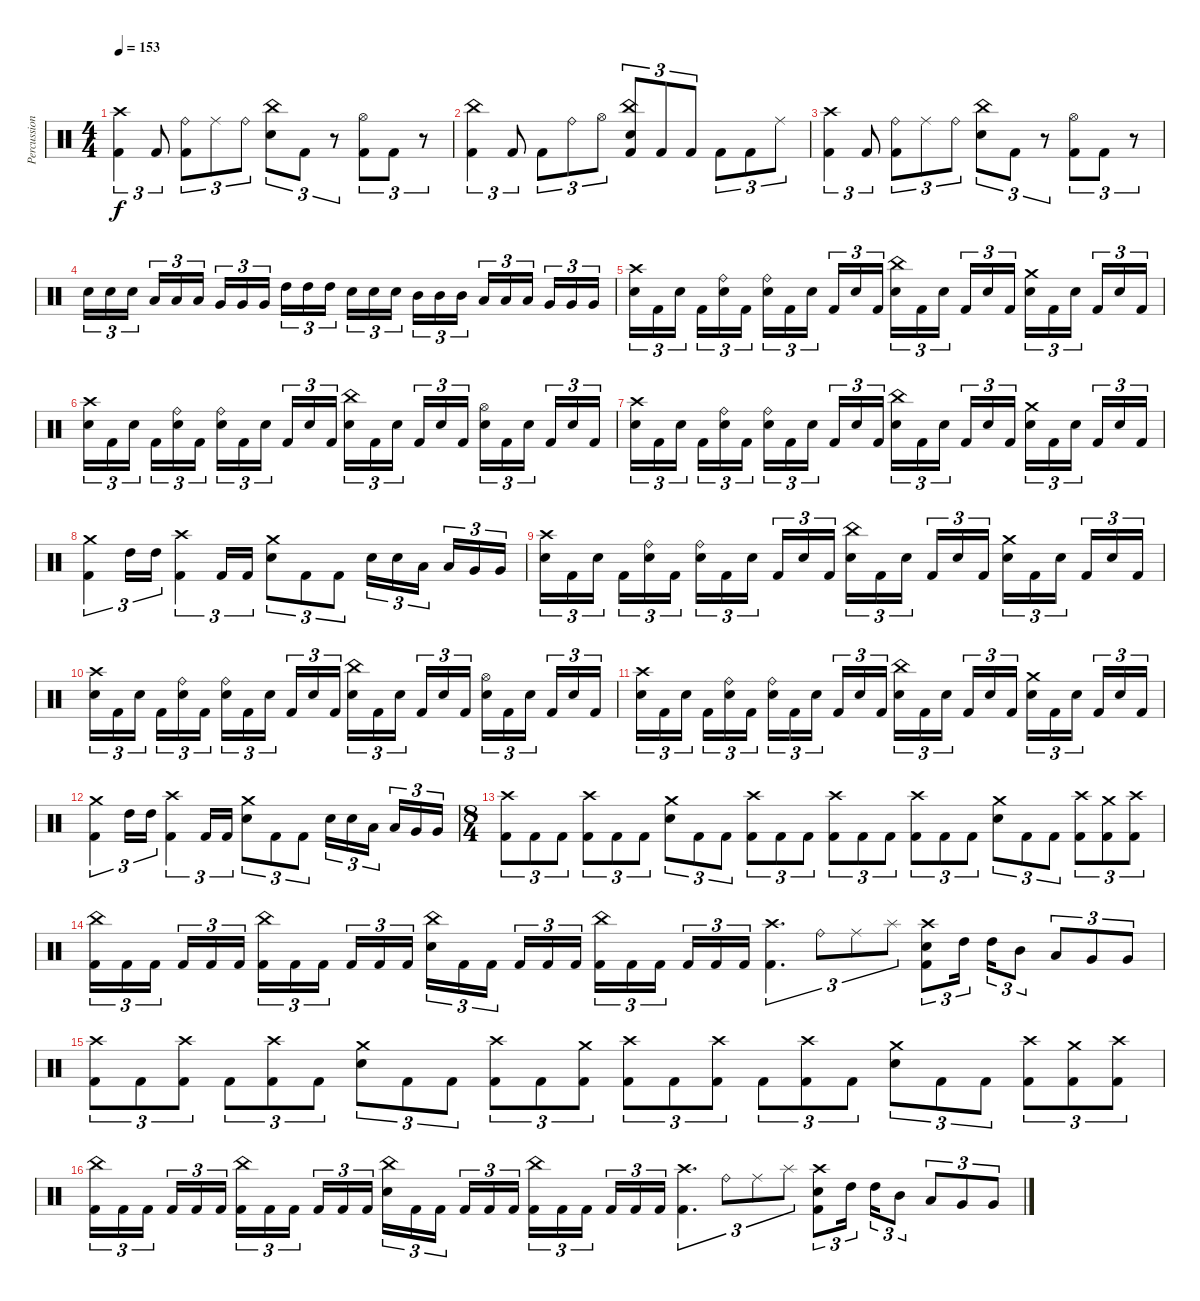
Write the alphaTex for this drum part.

\track ("Percussion" "Percussion") {instrument percussion}
\staff {score}
\articulation defaults
\ts (4 4)
\tempo 153
\clef neutral
\ks c
("Crash high (hit)" "Kick (hit) 2").4{tu (3 2) dy f} "Kick (hit) 2".8{tu (3 2)} ("Ride (bell)" "Kick (hit) 2").8{tu (3 2)} "Ride (middle)".8{tu (3 2)} "Ride (bell)".8{tu (3 2)} ("China (hit)" "Snare (hit) 2").8{tu (3 2)} "Kick (hit) 2".8{tu (3 2)} r.8{tu (3 2)} ("Hi-Hat (open)" "Kick (hit) 2").8{tu (3 2)} "Kick (hit) 2".8{tu (3 2)} r.8{tu (3 2)} |
("China (hit)" "Kick (hit) 2").4{tu (3 2)} "Kick (hit) 2".8{tu (3 2)} "Kick (hit) 2".8{tu (3 2)} "Ride (bell)".8{tu (3 2)} "Hi-Hat (open)".8{tu (3 2)} ("China (hit)" "Snare (hit) 2" "Kick (hit) 2").8{tu (3 2)} "Kick (hit) 2".8{tu (3 2)} "Kick (hit) 2".8{tu (3 2)} "Kick (hit) 2".8{tu (3 2)} "Kick (hit) 2".8{tu (3 2)} "Ride (middle)".8{tu (3 2)} |
("Crash high (hit)" "Kick (hit) 2").4{tu (3 2)} "Kick (hit) 2".8{tu (3 2)} ("Ride (bell)" "Kick (hit) 2").8{tu (3 2)} "Ride (middle)".8{tu (3 2)} "Ride (bell)".8{tu (3 2)} ("China (hit)" "Snare (hit) 2").8{tu (3 2)} "Kick (hit) 2".8{tu (3 2)} r.8{tu (3 2)} ("Hi-Hat (open)" "Kick (hit) 2").8{tu (3 2)} "Kick (hit) 2".8{tu (3 2)} r.8{tu (3 2)} |
"Snare (hit) 2".16{tu (3 2)} "Snare (hit) 2".16{tu (3 2)} "Snare (hit) 2".16{tu (3 2) beam splitsecondary} "Low Tom (hit)".16{tu (3 2)} "Low Tom (hit)".16{tu (3 2)} "Low Tom (hit)".16{tu (3 2)} "Very Low Tom (hit)".16{tu (3 2)} "Very Low Tom (hit)".16{tu (3 2)} "Very Low Tom (hit)".16{tu (3 2) beam splitsecondary} "High Tom (hit)".16{tu (3 2)} "High Tom (hit)".16{tu (3 2)} "High Tom (hit)".16{tu (3 2)} "Snare (hit) 2".16{tu (3 2)} "Snare (hit) 2".16{tu (3 2)} "Snare (hit) 2".16{tu (3 2) beam splitsecondary} "Mid Tom (hit)".16{tu (3 2)} "Mid Tom (hit)".16{tu (3 2)} "Mid Tom (hit)".16{tu (3 2)} "Low Tom (hit)".16{tu (3 2)} "Low Tom (hit)".16{tu (3 2)} "Low Tom (hit)".16{tu (3 2) beam splitsecondary} "Very Low Tom (hit)".16{tu (3 2)} "Very Low Tom (hit)".16{tu (3 2)} "Very Low Tom (hit)".16{tu (3 2)} |
("Crash high (hit)" "Snare (hit) 2").16{tu (3 2)} "Kick (hit) 2".16{tu (3 2)} "Snare (hit) 2".16{tu (3 2) beam splitsecondary} "Kick (hit) 2".16{tu (3 2)} ("Ride (bell)" "Snare (hit) 2").16{tu (3 2)} "Kick (hit) 2".16{tu (3 2)} ("Ride (bell)" "Snare (hit) 2").16{tu (3 2)} "Kick (hit) 2".16{tu (3 2)} "Snare (hit) 2".16{tu (3 2) beam splitsecondary} "Kick (hit) 2".16{tu (3 2)} "Snare (hit) 2".16{tu (3 2)} "Kick (hit) 2".16{tu (3 2)} ("China (hit)" "Snare (hit) 2").16{tu (3 2)} "Kick (hit) 2".16{tu (3 2)} "Snare (hit) 2".16{tu (3 2) beam splitsecondary} "Kick (hit) 2".16{tu (3 2)} "Snare (hit) 2".16{tu (3 2)} "Kick (hit) 2".16{tu (3 2)} ("Crash medium (hit)" "Snare (hit) 2").16{tu (3 2)} "Kick (hit) 2".16{tu (3 2)} "Snare (hit) 2".16{tu (3 2) beam splitsecondary} "Kick (hit) 2".16{tu (3 2)} "Snare (hit) 2".16{tu (3 2)} "Kick (hit) 2".16{tu (3 2)} |
("Crash high (hit)" "Snare (hit) 2").16{tu (3 2)} "Kick (hit) 2".16{tu (3 2)} "Snare (hit) 2".16{tu (3 2) beam splitsecondary} "Kick (hit) 2".16{tu (3 2)} ("Ride (bell)" "Snare (hit) 2").16{tu (3 2)} "Kick (hit) 2".16{tu (3 2)} ("Ride (bell)" "Snare (hit) 2").16{tu (3 2)} "Kick (hit) 2".16{tu (3 2)} "Snare (hit) 2".16{tu (3 2) beam splitsecondary} "Kick (hit) 2".16{tu (3 2)} "Snare (hit) 2".16{tu (3 2)} "Kick (hit) 2".16{tu (3 2)} ("China (hit)" "Snare (hit) 2").16{tu (3 2)} "Kick (hit) 2".16{tu (3 2)} "Snare (hit) 2".16{tu (3 2) beam splitsecondary} "Kick (hit) 2".16{tu (3 2)} "Snare (hit) 2".16{tu (3 2)} "Kick (hit) 2".16{tu (3 2)} ("Hi-Hat (open)" "Snare (hit) 2").16{tu (3 2)} "Kick (hit) 2".16{tu (3 2)} "Snare (hit) 2".16{tu (3 2) beam splitsecondary} "Kick (hit) 2".16{tu (3 2)} "Snare (hit) 2".16{tu (3 2)} "Kick (hit) 2".16{tu (3 2)} |
("Crash high (hit)" "Snare (hit) 2").16{tu (3 2)} "Kick (hit) 2".16{tu (3 2)} "Snare (hit) 2".16{tu (3 2) beam splitsecondary} "Kick (hit) 2".16{tu (3 2)} ("Ride (bell)" "Snare (hit) 2").16{tu (3 2)} "Kick (hit) 2".16{tu (3 2)} ("Ride (bell)" "Snare (hit) 2").16{tu (3 2)} "Kick (hit) 2".16{tu (3 2)} "Snare (hit) 2".16{tu (3 2) beam splitsecondary} "Kick (hit) 2".16{tu (3 2)} "Snare (hit) 2".16{tu (3 2)} "Kick (hit) 2".16{tu (3 2)} ("China (hit)" "Snare (hit) 2").16{tu (3 2)} "Kick (hit) 2".16{tu (3 2)} "Snare (hit) 2".16{tu (3 2) beam splitsecondary} "Kick (hit) 2".16{tu (3 2)} "Snare (hit) 2".16{tu (3 2)} "Kick (hit) 2".16{tu (3 2)} ("Crash medium (hit)" "Snare (hit) 2").16{tu (3 2)} "Kick (hit) 2".16{tu (3 2)} "Snare (hit) 2".16{tu (3 2) beam splitsecondary} "Kick (hit) 2".16{tu (3 2)} "Snare (hit) 2".16{tu (3 2)} "Kick (hit) 2".16{tu (3 2)} |
("Crash medium (hit)" "Kick (hit) 2").4{tu (3 2)} "High Tom (hit)".16{tu (3 2)} "High Tom (hit)".16{tu (3 2)} ("Crash high (hit)" "Kick (hit) 2").4{tu (3 2)} "Kick (hit) 2".16{tu (3 2)} "Kick (hit) 2".16{tu (3 2)} ("Crash medium (hit)" "Snare (hit) 2").8{tu (3 2)} "Kick (hit) 2".8{tu (3 2)} "Kick (hit) 2".8{tu (3 2)} "Snare (hit) 2".16{tu (3 2)} "Snare (hit) 2".16{tu (3 2)} "Low Tom (hit)".16{tu (3 2) beam splitsecondary} "Low Tom (hit)".16{tu (3 2)} "Very Low Tom (hit)".16{tu (3 2)} "Very Low Tom (hit)".16{tu (3 2)} |
("Crash high (hit)" "Snare (hit) 2").16{tu (3 2)} "Kick (hit) 2".16{tu (3 2)} "Snare (hit) 2".16{tu (3 2) beam splitsecondary} "Kick (hit) 2".16{tu (3 2)} ("Ride (bell)" "Snare (hit) 2").16{tu (3 2)} "Kick (hit) 2".16{tu (3 2)} ("Ride (bell)" "Snare (hit) 2").16{tu (3 2)} "Kick (hit) 2".16{tu (3 2)} "Snare (hit) 2".16{tu (3 2) beam splitsecondary} "Kick (hit) 2".16{tu (3 2)} "Snare (hit) 2".16{tu (3 2)} "Kick (hit) 2".16{tu (3 2)} ("China (hit)" "Snare (hit) 2").16{tu (3 2)} "Kick (hit) 2".16{tu (3 2)} "Snare (hit) 2".16{tu (3 2) beam splitsecondary} "Kick (hit) 2".16{tu (3 2)} "Snare (hit) 2".16{tu (3 2)} "Kick (hit) 2".16{tu (3 2)} ("Crash medium (hit)" "Snare (hit) 2").16{tu (3 2)} "Kick (hit) 2".16{tu (3 2)} "Snare (hit) 2".16{tu (3 2) beam splitsecondary} "Kick (hit) 2".16{tu (3 2)} "Snare (hit) 2".16{tu (3 2)} "Kick (hit) 2".16{tu (3 2)} |
("Crash high (hit)" "Snare (hit) 2").16{tu (3 2)} "Kick (hit) 2".16{tu (3 2)} "Snare (hit) 2".16{tu (3 2) beam splitsecondary} "Kick (hit) 2".16{tu (3 2)} ("Ride (bell)" "Snare (hit) 2").16{tu (3 2)} "Kick (hit) 2".16{tu (3 2)} ("Ride (bell)" "Snare (hit) 2").16{tu (3 2)} "Kick (hit) 2".16{tu (3 2)} "Snare (hit) 2".16{tu (3 2) beam splitsecondary} "Kick (hit) 2".16{tu (3 2)} "Snare (hit) 2".16{tu (3 2)} "Kick (hit) 2".16{tu (3 2)} ("China (hit)" "Snare (hit) 2").16{tu (3 2)} "Kick (hit) 2".16{tu (3 2)} "Snare (hit) 2".16{tu (3 2) beam splitsecondary} "Kick (hit) 2".16{tu (3 2)} "Snare (hit) 2".16{tu (3 2)} "Kick (hit) 2".16{tu (3 2)} ("Hi-Hat (open)" "Snare (hit) 2").16{tu (3 2)} "Kick (hit) 2".16{tu (3 2)} "Snare (hit) 2".16{tu (3 2) beam splitsecondary} "Kick (hit) 2".16{tu (3 2)} "Snare (hit) 2".16{tu (3 2)} "Kick (hit) 2".16{tu (3 2)} |
("Crash high (hit)" "Snare (hit) 2").16{tu (3 2)} "Kick (hit) 2".16{tu (3 2)} "Snare (hit) 2".16{tu (3 2) beam splitsecondary} "Kick (hit) 2".16{tu (3 2)} ("Ride (bell)" "Snare (hit) 2").16{tu (3 2)} "Kick (hit) 2".16{tu (3 2)} ("Ride (bell)" "Snare (hit) 2").16{tu (3 2)} "Kick (hit) 2".16{tu (3 2)} "Snare (hit) 2".16{tu (3 2) beam splitsecondary} "Kick (hit) 2".16{tu (3 2)} "Snare (hit) 2".16{tu (3 2)} "Kick (hit) 2".16{tu (3 2)} ("China (hit)" "Snare (hit) 2").16{tu (3 2)} "Kick (hit) 2".16{tu (3 2)} "Snare (hit) 2".16{tu (3 2) beam splitsecondary} "Kick (hit) 2".16{tu (3 2)} "Snare (hit) 2".16{tu (3 2)} "Kick (hit) 2".16{tu (3 2)} ("Crash medium (hit)" "Snare (hit) 2").16{tu (3 2)} "Kick (hit) 2".16{tu (3 2)} "Snare (hit) 2".16{tu (3 2) beam splitsecondary} "Kick (hit) 2".16{tu (3 2)} "Snare (hit) 2".16{tu (3 2)} "Kick (hit) 2".16{tu (3 2)} |
("Crash medium (hit)" "Kick (hit) 2").4{tu (3 2)} "High Tom (hit)".16{tu (3 2)} "High Tom (hit)".16{tu (3 2)} ("Crash high (hit)" "Kick (hit) 2").4{tu (3 2)} "Kick (hit) 2".16{tu (3 2)} "Kick (hit) 2".16{tu (3 2)} ("Crash medium (hit)" "Snare (hit) 2").8{tu (3 2)} "Kick (hit) 2".8{tu (3 2)} "Kick (hit) 2".8{tu (3 2)} "Snare (hit) 2".16{tu (3 2)} "Snare (hit) 2".16{tu (3 2)} "Low Tom (hit)".16{tu (3 2) beam splitsecondary} "Low Tom (hit)".16{tu (3 2)} "Very Low Tom (hit)".16{tu (3 2)} "Very Low Tom (hit)".16{tu (3 2)} |
\ts (8 4)
("Crash high (hit)" "Kick (hit) 2").8{tu (3 2)} "Kick (hit) 2".8{tu (3 2)} "Kick (hit) 2".8{tu (3 2)} ("Crash high (hit)" "Kick (hit) 2").8{tu (3 2)} "Kick (hit) 2".8{tu (3 2)} "Kick (hit) 2".8{tu (3 2)} ("Crash medium (hit)" "Snare (hit) 2").8{tu (3 2)} "Kick (hit) 2".8{tu (3 2)} "Kick (hit) 2".8{tu (3 2)} ("Crash high (hit)" "Kick (hit) 2").8{tu (3 2)} "Kick (hit) 2".8{tu (3 2)} "Kick (hit) 2".8{tu (3 2)} ("Crash high (hit)" "Kick (hit) 2").8{tu (3 2)} "Kick (hit) 2".8{tu (3 2)} "Kick (hit) 2".8{tu (3 2)} ("Crash high (hit)" "Kick (hit) 2").8{tu (3 2)} "Kick (hit) 2".8{tu (3 2)} "Kick (hit) 2".8{tu (3 2)} ("Crash medium (hit)" "Snare (hit) 2").8{tu (3 2)} "Kick (hit) 2".8{tu (3 2)} "Kick (hit) 2".8{tu (3 2)} ("Crash high (hit)" "Kick (hit) 2").8{tu (3 2)} ("Crash medium (hit)" "Kick (hit) 2").8{tu (3 2)} ("Crash high (hit)" "Kick (hit) 2").8{tu (3 2)} |
("China (hit)" "Kick (hit) 2").16{tu (3 2)} "Kick (hit) 2".16{tu (3 2)} "Kick (hit) 2".16{tu (3 2) beam splitsecondary} "Kick (hit) 2".16{tu (3 2)} "Kick (hit) 2".16{tu (3 2)} "Kick (hit) 2".16{tu (3 2)} ("China (hit)" "Kick (hit) 2").16{tu (3 2)} "Kick (hit) 2".16{tu (3 2)} "Kick (hit) 2".16{tu (3 2) beam splitsecondary} "Kick (hit) 2".16{tu (3 2)} "Kick (hit) 2".16{tu (3 2)} "Kick (hit) 2".16{tu (3 2)} ("China (hit)" "Snare (hit) 2").16{tu (3 2)} "Kick (hit) 2".16{tu (3 2)} "Kick (hit) 2".16{tu (3 2) beam splitsecondary} "Kick (hit) 2".16{tu (3 2)} "Kick (hit) 2".16{tu (3 2)} "Kick (hit) 2".16{tu (3 2)} ("China (hit)" "Kick (hit) 2").16{tu (3 2)} "Kick (hit) 2".16{tu (3 2)} "Kick (hit) 2".16{tu (3 2) beam splitsecondary} "Kick (hit) 2".16{tu (3 2)} "Kick (hit) 2".16{tu (3 2)} "Kick (hit) 2".16{tu (3 2)} ("Crash high (hit)" "Kick (hit) 2").4{d tu (3 2)} "Ride (bell)".8{tu (3 2)} "Ride (middle)".8{tu (3 2)} "Splash (hit)".8{tu (3 2)} ("Crash high (hit)" "Snare (hit) 2" "Kick (hit) 2").8{tu (3 2)} "High Tom (hit)".16{tu (3 2) beam splitsecondary} "High Tom (hit)".16{tu (3 2)} "Mid Tom (hit)".8{tu (3 2)} "Low Tom (hit)".8{tu (3 2)} "Very Low Tom (hit)".8{tu (3 2)} "Very Low Tom (hit)".8{tu (3 2)} |
("Crash high (hit)" "Kick (hit) 2").8{tu (3 2)} "Kick (hit) 2".8{tu (3 2)} ("Crash high (hit)" "Kick (hit) 2").8{tu (3 2)} "Kick (hit) 2".8{tu (3 2)} ("Crash high (hit)" "Kick (hit) 2").8{tu (3 2)} "Kick (hit) 2".8{tu (3 2)} ("Crash medium (hit)" "Snare (hit) 2").8{tu (3 2)} "Kick (hit) 2".8{tu (3 2)} "Kick (hit) 2".8{tu (3 2)} ("Crash high (hit)" "Kick (hit) 2").8{tu (3 2)} "Kick (hit) 2".8{tu (3 2)} ("Crash medium (hit)" "Kick (hit) 2").8{tu (3 2)} ("Crash high (hit)" "Kick (hit) 2").8{tu (3 2)} "Kick (hit) 2".8{tu (3 2)} ("Crash high (hit)" "Kick (hit) 2").8{tu (3 2)} "Kick (hit) 2".8{tu (3 2)} ("Crash high (hit)" "Kick (hit) 2").8{tu (3 2)} "Kick (hit) 2".8{tu (3 2)} ("Crash medium (hit)" "Snare (hit) 2").8{tu (3 2)} "Kick (hit) 2".8{tu (3 2)} "Kick (hit) 2".8{tu (3 2)} ("Crash high (hit)" "Kick (hit) 2").8{tu (3 2)} ("Crash medium (hit)" "Kick (hit) 2").8{tu (3 2)} ("Crash high (hit)" "Kick (hit) 2").8{tu (3 2)} |
("China (hit)" "Kick (hit) 2").16{tu (3 2)} "Kick (hit) 2".16{tu (3 2)} "Kick (hit) 2".16{tu (3 2) beam splitsecondary} "Kick (hit) 2".16{tu (3 2)} "Kick (hit) 2".16{tu (3 2)} "Kick (hit) 2".16{tu (3 2)} ("China (hit)" "Kick (hit) 2").16{tu (3 2)} "Kick (hit) 2".16{tu (3 2)} "Kick (hit) 2".16{tu (3 2) beam splitsecondary} "Kick (hit) 2".16{tu (3 2)} "Kick (hit) 2".16{tu (3 2)} "Kick (hit) 2".16{tu (3 2)} ("China (hit)" "Snare (hit) 2").16{tu (3 2)} "Kick (hit) 2".16{tu (3 2)} "Kick (hit) 2".16{tu (3 2) beam splitsecondary} "Kick (hit) 2".16{tu (3 2)} "Kick (hit) 2".16{tu (3 2)} "Kick (hit) 2".16{tu (3 2)} ("China (hit)" "Kick (hit) 2").16{tu (3 2)} "Kick (hit) 2".16{tu (3 2)} "Kick (hit) 2".16{tu (3 2) beam splitsecondary} "Kick (hit) 2".16{tu (3 2)} "Kick (hit) 2".16{tu (3 2)} "Kick (hit) 2".16{tu (3 2)} ("Crash high (hit)" "Kick (hit) 2").4{d tu (3 2)} "Ride (bell)".8{tu (3 2)} "Ride (middle)".8{tu (3 2)} "Splash (hit)".8{tu (3 2)} ("Crash high (hit)" "Snare (hit) 2" "Kick (hit) 2").8{tu (3 2)} "High Tom (hit)".16{tu (3 2) beam splitsecondary} "High Tom (hit)".16{tu (3 2)} "Mid Tom (hit)".8{tu (3 2)} "Low Tom (hit)".8{tu (3 2)} "Very Low Tom (hit)".8{tu (3 2)} "Very Low Tom (hit)".8{tu (3 2)}
